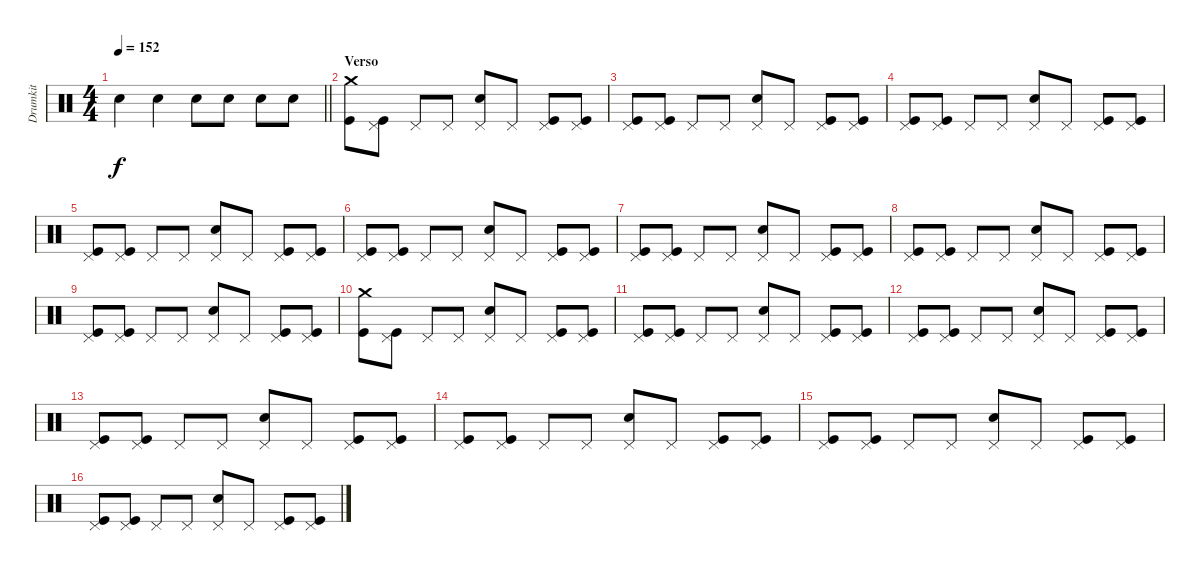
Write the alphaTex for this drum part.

\track ("Drumkit" "Drumkit") {instrument percussion}
\staff {score}
\articulation defaults
\ts (4 4)
\tempo 152
\clef neutral
\barLineRight lightlight
\ks c "Snare (hit) 2".4{dy f} "Snare (hit) 2".4 "Snare (hit) 2".8 "Snare (hit) 2".8 "Snare (hit) 2".8 "Snare (hit) 2".8
|
\section ("" "Verso")
("Crash medium (hit)" "Kick (hit)").8 ("Pedal Hi-Hat (hit)" "Kick (hit)").8 "Pedal Hi-Hat (hit)".8 "Pedal Hi-Hat (hit)".8 ("Pedal Hi-Hat (hit)" "Snare (hit) 2").8 "Pedal Hi-Hat (hit)".8 ("Pedal Hi-Hat (hit)" "Kick (hit)").8 ("Pedal Hi-Hat (hit)" "Kick (hit)").8 |
("Pedal Hi-Hat (hit)" "Kick (hit)").8 ("Pedal Hi-Hat (hit)" "Kick (hit)").8 "Pedal Hi-Hat (hit)".8 "Pedal Hi-Hat (hit)".8 ("Pedal Hi-Hat (hit)" "Snare (hit) 2").8 "Pedal Hi-Hat (hit)".8 ("Pedal Hi-Hat (hit)" "Kick (hit)").8 ("Pedal Hi-Hat (hit)" "Kick (hit)").8 |
("Pedal Hi-Hat (hit)" "Kick (hit)").8 ("Pedal Hi-Hat (hit)" "Kick (hit)").8 "Pedal Hi-Hat (hit)".8 "Pedal Hi-Hat (hit)".8 ("Pedal Hi-Hat (hit)" "Snare (hit) 2").8 "Pedal Hi-Hat (hit)".8 ("Pedal Hi-Hat (hit)" "Kick (hit)").8 ("Pedal Hi-Hat (hit)" "Kick (hit)").8 |
("Pedal Hi-Hat (hit)" "Kick (hit)").8 ("Pedal Hi-Hat (hit)" "Kick (hit)").8 "Pedal Hi-Hat (hit)".8 "Pedal Hi-Hat (hit)".8 ("Pedal Hi-Hat (hit)" "Snare (hit) 2").8 "Pedal Hi-Hat (hit)".8 ("Pedal Hi-Hat (hit)" "Kick (hit)").8 ("Pedal Hi-Hat (hit)" "Kick (hit)").8 |
("Pedal Hi-Hat (hit)" "Kick (hit)").8 ("Pedal Hi-Hat (hit)" "Kick (hit)").8 "Pedal Hi-Hat (hit)".8 "Pedal Hi-Hat (hit)".8 ("Pedal Hi-Hat (hit)" "Snare (hit) 2").8 "Pedal Hi-Hat (hit)".8 ("Pedal Hi-Hat (hit)" "Kick (hit)").8 ("Pedal Hi-Hat (hit)" "Kick (hit)").8 |
("Pedal Hi-Hat (hit)" "Kick (hit)").8 ("Pedal Hi-Hat (hit)" "Kick (hit)").8 "Pedal Hi-Hat (hit)".8 "Pedal Hi-Hat (hit)".8 ("Pedal Hi-Hat (hit)" "Snare (hit) 2").8 "Pedal Hi-Hat (hit)".8 ("Pedal Hi-Hat (hit)" "Kick (hit)").8 ("Pedal Hi-Hat (hit)" "Kick (hit)").8 |
("Pedal Hi-Hat (hit)" "Kick (hit)").8 ("Pedal Hi-Hat (hit)" "Kick (hit)").8 "Pedal Hi-Hat (hit)".8 "Pedal Hi-Hat (hit)".8 ("Pedal Hi-Hat (hit)" "Snare (hit) 2").8 "Pedal Hi-Hat (hit)".8 ("Pedal Hi-Hat (hit)" "Kick (hit)").8 ("Pedal Hi-Hat (hit)" "Kick (hit)").8 |
("Pedal Hi-Hat (hit)" "Kick (hit)").8 ("Pedal Hi-Hat (hit)" "Kick (hit)").8 "Pedal Hi-Hat (hit)".8 "Pedal Hi-Hat (hit)".8 ("Pedal Hi-Hat (hit)" "Snare (hit) 2").8 "Pedal Hi-Hat (hit)".8 ("Pedal Hi-Hat (hit)" "Kick (hit)").8 ("Pedal Hi-Hat (hit)" "Kick (hit)").8 |
("Crash medium (hit)" "Kick (hit)").8 ("Pedal Hi-Hat (hit)" "Kick (hit)").8 "Pedal Hi-Hat (hit)".8 "Pedal Hi-Hat (hit)".8 ("Pedal Hi-Hat (hit)" "Snare (hit) 2").8 "Pedal Hi-Hat (hit)".8 ("Pedal Hi-Hat (hit)" "Kick (hit)").8 ("Pedal Hi-Hat (hit)" "Kick (hit)").8 |
("Pedal Hi-Hat (hit)" "Kick (hit)").8 ("Pedal Hi-Hat (hit)" "Kick (hit)").8 "Pedal Hi-Hat (hit)".8 "Pedal Hi-Hat (hit)".8 ("Pedal Hi-Hat (hit)" "Snare (hit) 2").8 "Pedal Hi-Hat (hit)".8 ("Pedal Hi-Hat (hit)" "Kick (hit)").8 ("Pedal Hi-Hat (hit)" "Kick (hit)").8 |
("Pedal Hi-Hat (hit)" "Kick (hit)").8 ("Pedal Hi-Hat (hit)" "Kick (hit)").8 "Pedal Hi-Hat (hit)".8 "Pedal Hi-Hat (hit)".8 ("Pedal Hi-Hat (hit)" "Snare (hit) 2").8 "Pedal Hi-Hat (hit)".8 ("Pedal Hi-Hat (hit)" "Kick (hit)").8 ("Pedal Hi-Hat (hit)" "Kick (hit)").8 |
("Pedal Hi-Hat (hit)" "Kick (hit)").8 ("Pedal Hi-Hat (hit)" "Kick (hit)").8 "Pedal Hi-Hat (hit)".8 "Pedal Hi-Hat (hit)".8 ("Pedal Hi-Hat (hit)" "Snare (hit) 2").8 "Pedal Hi-Hat (hit)".8 ("Pedal Hi-Hat (hit)" "Kick (hit)").8 ("Pedal Hi-Hat (hit)" "Kick (hit)").8 |
("Pedal Hi-Hat (hit)" "Kick (hit)").8 ("Pedal Hi-Hat (hit)" "Kick (hit)").8 "Pedal Hi-Hat (hit)".8 "Pedal Hi-Hat (hit)".8 ("Pedal Hi-Hat (hit)" "Snare (hit) 2").8 "Pedal Hi-Hat (hit)".8 ("Pedal Hi-Hat (hit)" "Kick (hit)").8 ("Pedal Hi-Hat (hit)" "Kick (hit)").8 |
("Pedal Hi-Hat (hit)" "Kick (hit)").8 ("Pedal Hi-Hat (hit)" "Kick (hit)").8 "Pedal Hi-Hat (hit)".8 "Pedal Hi-Hat (hit)".8 ("Pedal Hi-Hat (hit)" "Snare (hit) 2").8 "Pedal Hi-Hat (hit)".8 ("Pedal Hi-Hat (hit)" "Kick (hit)").8 ("Pedal Hi-Hat (hit)" "Kick (hit)").8 |
("Pedal Hi-Hat (hit)" "Kick (hit)").8 ("Pedal Hi-Hat (hit)" "Kick (hit)").8 "Pedal Hi-Hat (hit)".8 "Pedal Hi-Hat (hit)".8 ("Pedal Hi-Hat (hit)" "Snare (hit) 2").8 "Pedal Hi-Hat (hit)".8 ("Pedal Hi-Hat (hit)" "Kick (hit)").8 ("Pedal Hi-Hat (hit)" "Kick (hit)").8
